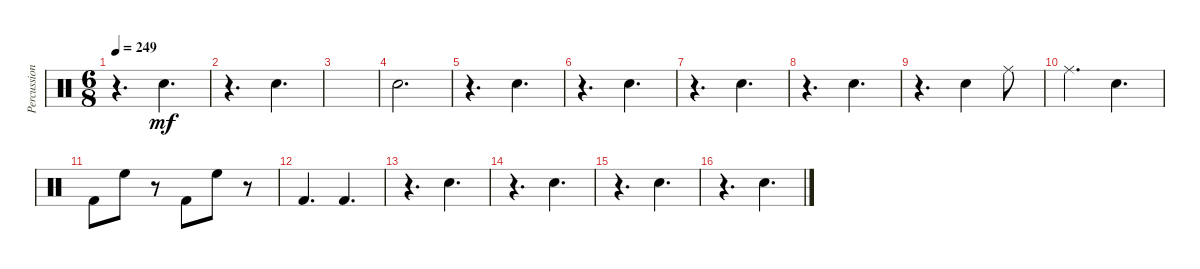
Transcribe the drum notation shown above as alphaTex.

\track ("Percussion" "Percussion") {instrument percussion}
\staff {score}
\articulation defaults
\ts (6 8)
\tempo 249
\clef neutral
\ks c
r.4{d dy mf} "Snare (hit) 2".4{d} |
r.4{d} "Snare (hit) 2".4{d} |
|
"Snare (hit) 2".2{d} |
r.4{d} "Snare (hit) 2".4{d} |
r.4{d} "Snare (hit) 2".4{d} |
r.4{d} "Snare (hit) 2".4{d} |
r.4{d} "Snare (hit) 2".4{d} |
r.4{d} "Snare (hit) 2".4 "Ride (middle)".8 |
"Ride (middle)".4{d} "Snare (hit) 2".4{d} |
"Kick (hit) 2".8 "High Floor Tom (hit)".8 r.8 "Kick (hit) 2".8 "High Floor Tom (hit)".8 r.8 |
"Kick (hit) 2".4{d} "Kick (hit) 2".4{d} |
r.4{d} "Snare (hit) 2".4{d} |
r.4{d} "Snare (hit) 2".4{d} |
r.4{d} "Snare (hit) 2".4{d} |
r.4{d} "Snare (hit) 2".4{d}
